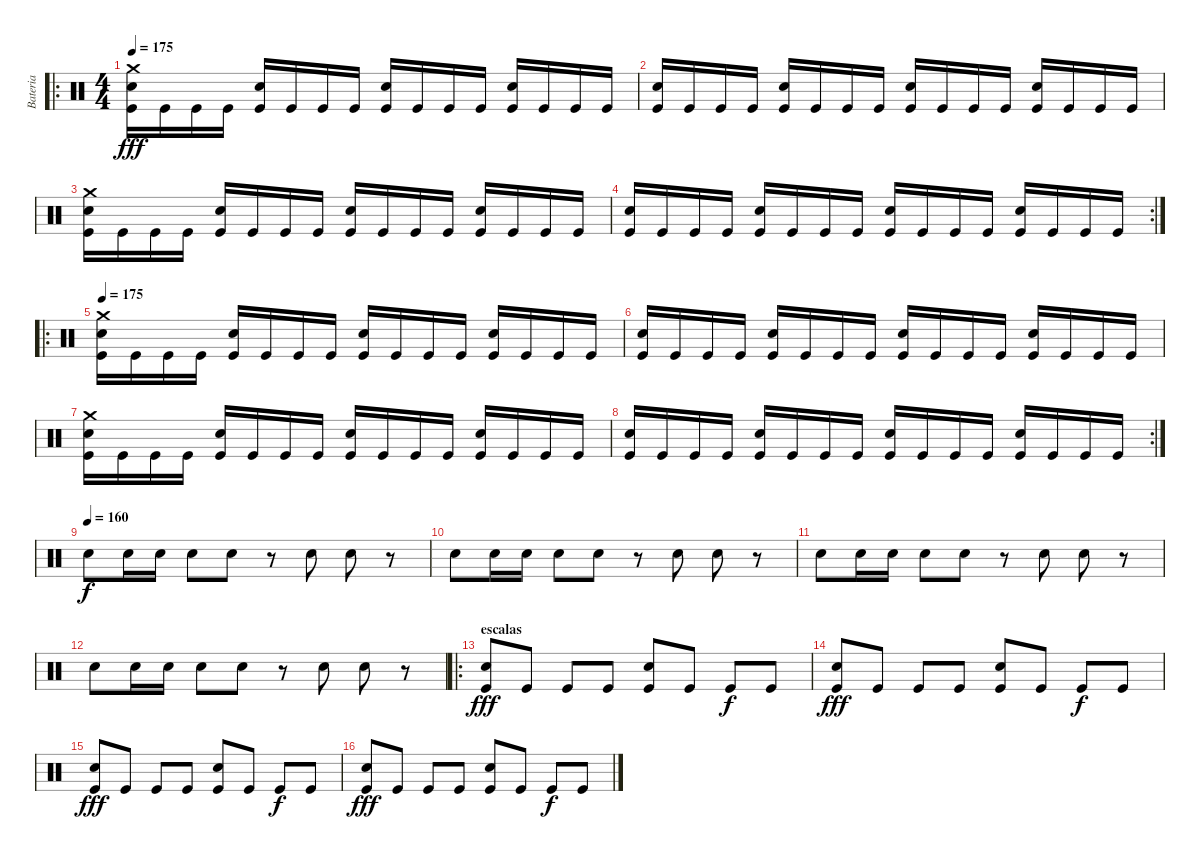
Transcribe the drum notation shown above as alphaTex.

\track ("Bateria" "Bateria") {instrument percussion}
\staff {score}
\articulation defaults
\ro
\ts (4 4)
\tempo 175
\clef neutral
\ks c
("Crash medium (hit)" "Electric Snare (hit)" "Kick (hit)").16{dy fff} "Kick (hit)".16 "Kick (hit)".16 "Kick (hit)".16 ("Electric Snare (hit)" "Kick (hit)").16 "Kick (hit)".16 "Kick (hit)".16 "Kick (hit)".16 ("Electric Snare (hit)" "Kick (hit)").16 "Kick (hit)".16 "Kick (hit)".16 "Kick (hit)".16 ("Electric Snare (hit)" "Kick (hit)").16 "Kick (hit)".16 "Kick (hit)".16 "Kick (hit)".16 |
("Electric Snare (hit)" "Kick (hit)").16 "Kick (hit)".16 "Kick (hit)".16 "Kick (hit)".16 ("Electric Snare (hit)" "Kick (hit)").16 "Kick (hit)".16 "Kick (hit)".16 "Kick (hit)".16 ("Electric Snare (hit)" "Kick (hit)").16 "Kick (hit)".16 "Kick (hit)".16 "Kick (hit)".16 ("Electric Snare (hit)" "Kick (hit)").16 "Kick (hit)".16 "Kick (hit)".16 "Kick (hit)".16 |
("Crash medium (hit)" "Electric Snare (hit)" "Kick (hit)").16 "Kick (hit)".16 "Kick (hit)".16 "Kick (hit)".16 ("Electric Snare (hit)" "Kick (hit)").16 "Kick (hit)".16 "Kick (hit)".16 "Kick (hit)".16 ("Electric Snare (hit)" "Kick (hit)").16 "Kick (hit)".16 "Kick (hit)".16 "Kick (hit)".16 ("Electric Snare (hit)" "Kick (hit)").16 "Kick (hit)".16 "Kick (hit)".16 "Kick (hit)".16 |
\rc 2
("Electric Snare (hit)" "Kick (hit)").16 "Kick (hit)".16 "Kick (hit)".16 "Kick (hit)".16 ("Electric Snare (hit)" "Kick (hit)").16 "Kick (hit)".16 "Kick (hit)".16 "Kick (hit)".16 ("Electric Snare (hit)" "Kick (hit)").16 "Kick (hit)".16 "Kick (hit)".16 "Kick (hit)".16 ("Electric Snare (hit)" "Kick (hit)").16 "Kick (hit)".16 "Kick (hit)".16 "Kick (hit)".16 |
\ro
\tempo 175
("Crash medium (hit)" "Electric Snare (hit)" "Kick (hit)").16 "Kick (hit)".16 "Kick (hit)".16 "Kick (hit)".16 ("Electric Snare (hit)" "Kick (hit)").16 "Kick (hit)".16 "Kick (hit)".16 "Kick (hit)".16 ("Electric Snare (hit)" "Kick (hit)").16 "Kick (hit)".16 "Kick (hit)".16 "Kick (hit)".16 ("Electric Snare (hit)" "Kick (hit)").16 "Kick (hit)".16 "Kick (hit)".16 "Kick (hit)".16 |
("Electric Snare (hit)" "Kick (hit)").16 "Kick (hit)".16 "Kick (hit)".16 "Kick (hit)".16 ("Electric Snare (hit)" "Kick (hit)").16 "Kick (hit)".16 "Kick (hit)".16 "Kick (hit)".16 ("Electric Snare (hit)" "Kick (hit)").16 "Kick (hit)".16 "Kick (hit)".16 "Kick (hit)".16 ("Electric Snare (hit)" "Kick (hit)").16 "Kick (hit)".16 "Kick (hit)".16 "Kick (hit)".16 |
("Crash medium (hit)" "Electric Snare (hit)" "Kick (hit)").16 "Kick (hit)".16 "Kick (hit)".16 "Kick (hit)".16 ("Electric Snare (hit)" "Kick (hit)").16 "Kick (hit)".16 "Kick (hit)".16 "Kick (hit)".16 ("Electric Snare (hit)" "Kick (hit)").16 "Kick (hit)".16 "Kick (hit)".16 "Kick (hit)".16 ("Electric Snare (hit)" "Kick (hit)").16 "Kick (hit)".16 "Kick (hit)".16 "Kick (hit)".16 |
\rc 2
("Electric Snare (hit)" "Kick (hit)").16 "Kick (hit)".16 "Kick (hit)".16 "Kick (hit)".16 ("Electric Snare (hit)" "Kick (hit)").16 "Kick (hit)".16 "Kick (hit)".16 "Kick (hit)".16 ("Electric Snare (hit)" "Kick (hit)").16 "Kick (hit)".16 "Kick (hit)".16 "Kick (hit)".16 ("Electric Snare (hit)" "Kick (hit)").16 "Kick (hit)".16 "Kick (hit)".16 "Kick (hit)".16 |
\tempo (160)
"Electric Snare (hit)".8{dy f} "Electric Snare (hit)".16 "Electric Snare (hit)".16 "Electric Snare (hit)".8 "Electric Snare (hit)".8 r.8 "Electric Snare (hit)".8 "Electric Snare (hit)".8 r.8 |
"Electric Snare (hit)".8 "Electric Snare (hit)".16 "Electric Snare (hit)".16 "Electric Snare (hit)".8 "Electric Snare (hit)".8 r.8 "Electric Snare (hit)".8 "Electric Snare (hit)".8 r.8 |
"Electric Snare (hit)".8 "Electric Snare (hit)".16 "Electric Snare (hit)".16 "Electric Snare (hit)".8 "Electric Snare (hit)".8 r.8 "Electric Snare (hit)".8 "Electric Snare (hit)".8 r.8 |
"Electric Snare (hit)".8 "Electric Snare (hit)".16 "Electric Snare (hit)".16 "Electric Snare (hit)".8 "Electric Snare (hit)".8 r.8 "Electric Snare (hit)".8 "Electric Snare (hit)".8 r.8 |
\ro
\section ("" "escalas")
("Electric Snare (hit)" "Kick (hit)").8{dy fff} "Kick (hit)".8 "Kick (hit)".8 "Kick (hit)".8 ("Electric Snare (hit)" "Kick (hit)").8 "Kick (hit)".8 "Kick (hit)".8{dy f} "Kick (hit)".8 |
("Electric Snare (hit)" "Kick (hit)").8{dy fff} "Kick (hit)".8 "Kick (hit)".8 "Kick (hit)".8 ("Electric Snare (hit)" "Kick (hit)").8 "Kick (hit)".8 "Kick (hit)".8{dy f} "Kick (hit)".8 |
("Electric Snare (hit)" "Kick (hit)").8{dy fff} "Kick (hit)".8 "Kick (hit)".8 "Kick (hit)".8 ("Electric Snare (hit)" "Kick (hit)").8 "Kick (hit)".8 "Kick (hit)".8{dy f} "Kick (hit)".8 |
("Electric Snare (hit)" "Kick (hit)").8{dy fff} "Kick (hit)".8 "Kick (hit)".8 "Kick (hit)".8 ("Electric Snare (hit)" "Kick (hit)").8 "Kick (hit)".8 "Kick (hit)".8{dy f} "Kick (hit)".8
